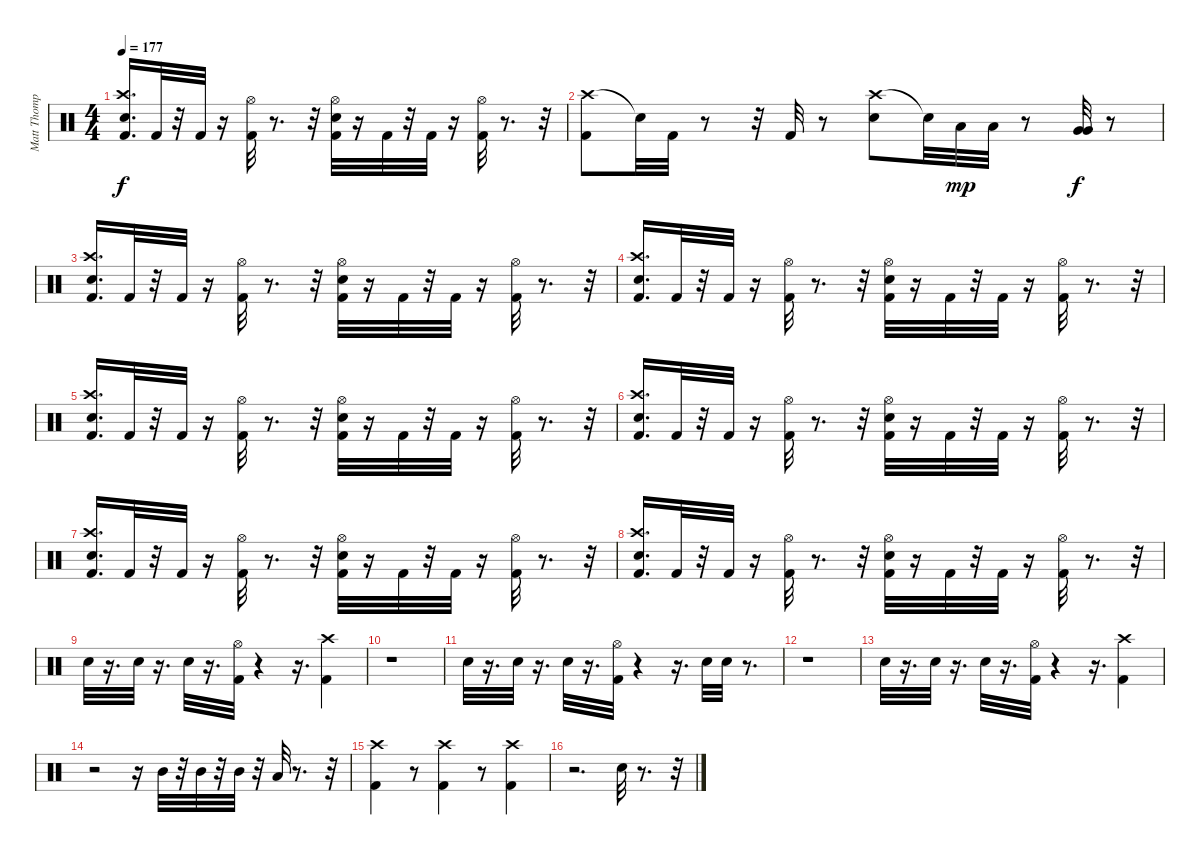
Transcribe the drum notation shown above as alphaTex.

\track ("Matt Thompson" "Matt Thomp") {instrument percussion}
\staff {score}
\articulation defaults
\ts (4 4)
\tempo 177
\clef neutral
\ks c
("Snare (hit) 2" "Crash high (hit)" "Kick (hit) 2").16{d dy f} "Kick (hit) 2".32 r.32 "Kick (hit) 2".32 r.16 ("Kick (hit) 2" "Hi-Hat (open)").32 r.8{d} r.32 ("Snare (hit) 2" "Hi-Hat (open)" "Kick (hit) 2").32 r.16 "Kick (hit) 2".32 r.32 "Kick (hit) 2".32 r.16 ("Kick (hit) 2" "Hi-Hat (open)").32 r.8{d} r.32 |
("Crash high (hit)" "Kick (hit) 2").8 "Snare (hit)"{t}.32 "Kick (hit) 2".32 r.8 r.32 "Kick (hit) 2".32 r.8 ("Crash high (hit)" "Snare (hit) 2").8 "Snare (hit)"{t}.32 "Low Tom (hit)".32{dy mp} "Low Tom (hit)".32 r.8 ("Very Low Tom (hit)" "Very Low Tom (hit)").32{dy f} r.8 |
("Snare (hit) 2" "Crash high (hit)" "Kick (hit) 2").16{d} "Kick (hit) 2".32 r.32 "Kick (hit) 2".32 r.16 ("Hi-Hat (open)" "Kick (hit) 2").32 r.8{d} r.32 ("Snare (hit) 2" "Hi-Hat (open)" "Kick (hit) 2").32 r.16 "Kick (hit) 2".32 r.32 "Kick (hit) 2".32 r.16 ("Hi-Hat (open)" "Kick (hit) 2").32 r.8{d} r.32 |
("Snare (hit) 2" "Crash high (hit)" "Kick (hit) 2").16{d} "Kick (hit) 2".32 r.32 "Kick (hit) 2".32 r.16 ("Hi-Hat (open)" "Kick (hit) 2").32 r.8{d} r.32 ("Snare (hit) 2" "Hi-Hat (open)" "Kick (hit) 2").32 r.16 "Kick (hit) 2".32 r.32 "Kick (hit) 2".32 r.16 ("Hi-Hat (open)" "Kick (hit) 2").32 r.8{d} r.32 |
("Snare (hit) 2" "Crash high (hit)" "Kick (hit) 2").16{d} "Kick (hit) 2".32 r.32 "Kick (hit) 2".32 r.16 ("Kick (hit) 2" "Hi-Hat (open)").32 r.8{d} r.32 ("Snare (hit) 2" "Hi-Hat (open)" "Kick (hit) 2").32 r.16 "Kick (hit) 2".32 r.32 "Kick (hit) 2".32 r.16 ("Kick (hit) 2" "Hi-Hat (open)").32 r.8{d} r.32 |
("Snare (hit) 2" "Crash high (hit)" "Kick (hit) 2").16{d} "Kick (hit) 2".32 r.32 "Kick (hit) 2".32 r.16 ("Kick (hit) 2" "Hi-Hat (open)").32 r.8{d} r.32 ("Snare (hit) 2" "Hi-Hat (open)" "Kick (hit) 2").32 r.16 "Kick (hit) 2".32 r.32 "Kick (hit) 2".32 r.16 ("Kick (hit) 2" "Hi-Hat (open)").32 r.8{d} r.32 |
("Snare (hit) 2" "Crash high (hit)" "Kick (hit) 2").16{d} "Kick (hit) 2".32 r.32 "Kick (hit) 2".32 r.16 ("Kick (hit) 2" "Hi-Hat (open)").32 r.8{d} r.32 ("Snare (hit) 2" "Hi-Hat (open)" "Kick (hit) 2").32 r.16 "Kick (hit) 2".32 r.32 "Kick (hit) 2".32 r.16 ("Kick (hit) 2" "Hi-Hat (open)").32 r.8{d} r.32 |
("Snare (hit) 2" "Crash high (hit)" "Kick (hit) 2").16{d} "Kick (hit) 2".32 r.32 "Kick (hit) 2".32 r.16 ("Hi-Hat (open)" "Kick (hit) 2").32 r.8{d} r.32 ("Snare (hit) 2" "Hi-Hat (open)" "Kick (hit) 2").32 r.16 "Kick (hit) 2".32 r.32 "Kick (hit) 2".32 r.16 ("Hi-Hat (open)" "Kick (hit) 2").32 r.8{d} r.32 |
"Snare (hit) 2".32 r.16{d} "Snare (hit) 2".32 r.16{d} "Snare (hit) 2".32 r.16{d} ("Hi-Hat (open)" "Kick (hit) 2").32 r.4 r.16{d} ("Crash high (hit)" "Kick (hit) 2").4 |
r.1 |
"Snare (hit) 2".32 r.16{d} "Snare (hit) 2".32 r.16{d} "Snare (hit) 2".32 r.16{d} ("Hi-Hat (open)" "Kick (hit) 2").32 r.4 r.16{d} "Snare (hit) 2".32 "Snare (hit) 2".32 r.8{d} |
r.1 |
"Snare (hit) 2".32 r.16{d} "Snare (hit) 2".32 r.16{d} "Snare (hit) 2".32 r.16{d} ("Hi-Hat (open)" "Kick (hit) 2").32 r.4 r.16{d} ("Crash high (hit)" "Kick (hit) 2").4 |
r.2 r.16 "Mid Tom (hit)".32 r.32 "Mid Tom (hit)".32 r.32 "Mid Tom (hit)".32 r.32 "Low Tom (hit)".32 r.8{d} r.32 |
("Crash high (hit)" "Kick (hit) 2").4 r.8 ("Crash high (hit)" "Kick (hit) 2").4 r.8 ("Crash high (hit)" "Kick (hit) 2").4 |
r.2{d} "Snare (hit) 2".32 r.8{d} r.32
